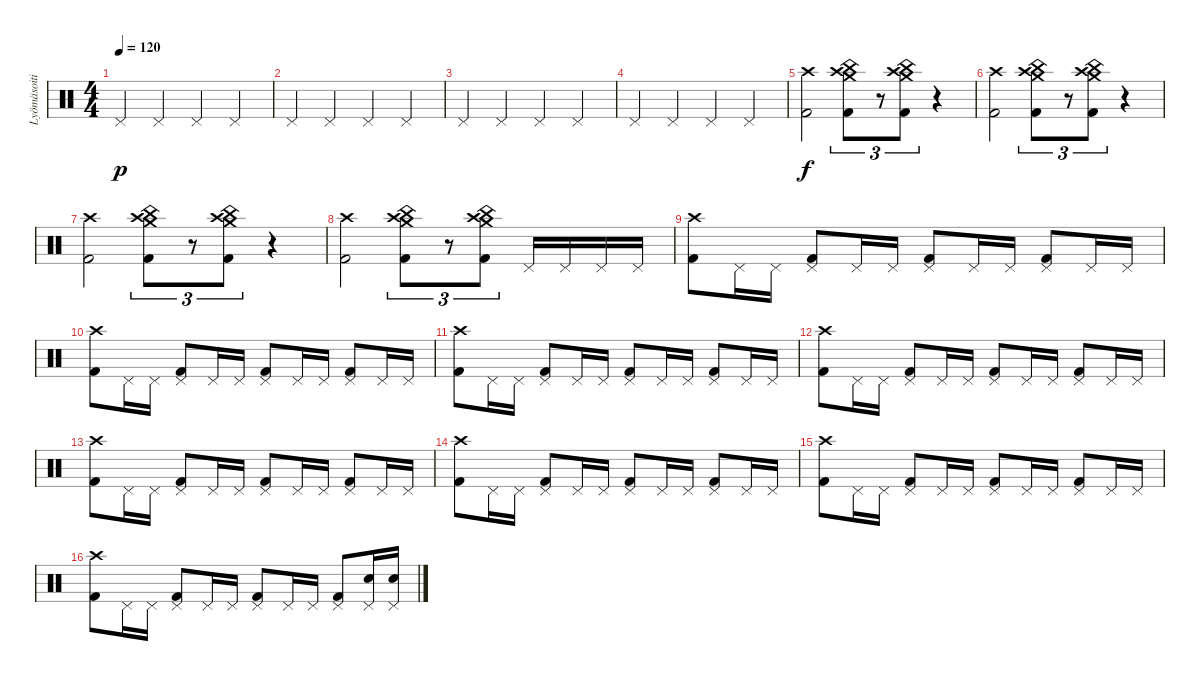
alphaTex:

\track ("Lyömäsoitin" "Lyömäsoiti") {instrument percussion}
\staff {score}
\articulation defaults
\ts (4 4)
\tempo 120
\clef neutral
\ks c "Pedal Hi-Hat (hit)".4{dy p} "Pedal Hi-Hat (hit)".4 "Pedal Hi-Hat (hit)".4 "Pedal Hi-Hat (hit)".4
|
"Pedal Hi-Hat (hit)".4 "Pedal Hi-Hat (hit)".4 "Pedal Hi-Hat (hit)".4 "Pedal Hi-Hat (hit)".4 |
"Pedal Hi-Hat (hit)".4 "Pedal Hi-Hat (hit)".4 "Pedal Hi-Hat (hit)".4 "Pedal Hi-Hat (hit)".4 |
"Pedal Hi-Hat (hit)".4 "Pedal Hi-Hat (hit)".4 "Pedal Hi-Hat (hit)".4 "Pedal Hi-Hat (hit)".4 |
("Crash high (hit)" "Kick (hit) 2").2{dy f} ("Crash medium (hit)" "China (hit)" "Crash high (hit)" "Kick (hit) 2").8{tu (3 2)} r.8{tu (3 2)} ("Crash medium (hit)" "China (hit)" "Crash high (hit)" "Kick (hit) 2").8{tu (3 2)} r.4 |
("Crash high (hit)" "Kick (hit) 2").2 ("Crash medium (hit)" "China (hit)" "Crash high (hit)" "Kick (hit) 2").8{tu (3 2)} r.8{tu (3 2)} ("Crash medium (hit)" "China (hit)" "Crash high (hit)" "Kick (hit) 2").8{tu (3 2)} r.4 |
("Crash high (hit)" "Kick (hit) 2").2 ("Crash medium (hit)" "China (hit)" "Crash high (hit)" "Kick (hit) 2").8{tu (3 2)} r.8{tu (3 2)} ("Crash medium (hit)" "China (hit)" "Crash high (hit)" "Kick (hit) 2").8{tu (3 2)} r.4 |
("Crash high (hit)" "Kick (hit) 2").2 ("Crash medium (hit)" "China (hit)" "Crash high (hit)" "Kick (hit) 2").8{tu (3 2)} r.8{tu (3 2)} ("Crash medium (hit)" "China (hit)" "Crash high (hit)" "Kick (hit) 2").8{tu (3 2)} "Pedal Hi-Hat (hit)".16 "Pedal Hi-Hat (hit)".16 "Pedal Hi-Hat (hit)".16 "Pedal Hi-Hat (hit)".16 |
("Crash high (hit)" "Kick (hit) 2").8 "Pedal Hi-Hat (hit)".16 "Pedal Hi-Hat (hit)".16 ("Pedal Hi-Hat (hit)" "Kick (hit) 2").8 "Pedal Hi-Hat (hit)".16 "Pedal Hi-Hat (hit)".16 ("Pedal Hi-Hat (hit)" "Kick (hit) 2").8 "Pedal Hi-Hat (hit)".16 "Pedal Hi-Hat (hit)".16 ("Pedal Hi-Hat (hit)" "Kick (hit) 2").8 "Pedal Hi-Hat (hit)".16 "Pedal Hi-Hat (hit)".16 |
("Crash high (hit)" "Kick (hit) 2").8 "Pedal Hi-Hat (hit)".16 "Pedal Hi-Hat (hit)".16 ("Pedal Hi-Hat (hit)" "Kick (hit) 2").8 "Pedal Hi-Hat (hit)".16 "Pedal Hi-Hat (hit)".16 ("Pedal Hi-Hat (hit)" "Kick (hit) 2").8 "Pedal Hi-Hat (hit)".16 "Pedal Hi-Hat (hit)".16 ("Pedal Hi-Hat (hit)" "Kick (hit) 2").8 "Pedal Hi-Hat (hit)".16 "Pedal Hi-Hat (hit)".16 |
("Crash high (hit)" "Kick (hit) 2").8 "Pedal Hi-Hat (hit)".16 "Pedal Hi-Hat (hit)".16 ("Pedal Hi-Hat (hit)" "Kick (hit) 2").8 "Pedal Hi-Hat (hit)".16 "Pedal Hi-Hat (hit)".16 ("Pedal Hi-Hat (hit)" "Kick (hit) 2").8 "Pedal Hi-Hat (hit)".16 "Pedal Hi-Hat (hit)".16 ("Pedal Hi-Hat (hit)" "Kick (hit) 2").8 "Pedal Hi-Hat (hit)".16 "Pedal Hi-Hat (hit)".16 |
("Crash high (hit)" "Kick (hit) 2").8 "Pedal Hi-Hat (hit)".16 "Pedal Hi-Hat (hit)".16 ("Pedal Hi-Hat (hit)" "Kick (hit) 2").8 "Pedal Hi-Hat (hit)".16 "Pedal Hi-Hat (hit)".16 ("Pedal Hi-Hat (hit)" "Kick (hit) 2").8 "Pedal Hi-Hat (hit)".16 "Pedal Hi-Hat (hit)".16 ("Pedal Hi-Hat (hit)" "Kick (hit) 2").8 "Pedal Hi-Hat (hit)".16 "Pedal Hi-Hat (hit)".16 |
("Crash high (hit)" "Kick (hit) 2").8 "Pedal Hi-Hat (hit)".16 "Pedal Hi-Hat (hit)".16 ("Pedal Hi-Hat (hit)" "Kick (hit) 2").8 "Pedal Hi-Hat (hit)".16 "Pedal Hi-Hat (hit)".16 ("Pedal Hi-Hat (hit)" "Kick (hit) 2").8 "Pedal Hi-Hat (hit)".16 "Pedal Hi-Hat (hit)".16 ("Pedal Hi-Hat (hit)" "Kick (hit) 2").8 "Pedal Hi-Hat (hit)".16 "Pedal Hi-Hat (hit)".16 |
("Crash high (hit)" "Kick (hit) 2").8 "Pedal Hi-Hat (hit)".16 "Pedal Hi-Hat (hit)".16 ("Pedal Hi-Hat (hit)" "Kick (hit) 2").8 "Pedal Hi-Hat (hit)".16 "Pedal Hi-Hat (hit)".16 ("Pedal Hi-Hat (hit)" "Kick (hit) 2").8 "Pedal Hi-Hat (hit)".16 "Pedal Hi-Hat (hit)".16 ("Pedal Hi-Hat (hit)" "Kick (hit) 2").8 "Pedal Hi-Hat (hit)".16 "Pedal Hi-Hat (hit)".16 |
("Crash high (hit)" "Kick (hit) 2").8 "Pedal Hi-Hat (hit)".16 "Pedal Hi-Hat (hit)".16 ("Pedal Hi-Hat (hit)" "Kick (hit) 2").8 "Pedal Hi-Hat (hit)".16 "Pedal Hi-Hat (hit)".16 ("Pedal Hi-Hat (hit)" "Kick (hit) 2").8 "Pedal Hi-Hat (hit)".16 "Pedal Hi-Hat (hit)".16 ("Pedal Hi-Hat (hit)" "Kick (hit) 2").8 "Pedal Hi-Hat (hit)".16 "Pedal Hi-Hat (hit)".16 |
("Crash high (hit)" "Kick (hit) 2").8 "Pedal Hi-Hat (hit)".16 "Pedal Hi-Hat (hit)".16 ("Pedal Hi-Hat (hit)" "Kick (hit) 2").8 "Pedal Hi-Hat (hit)".16 "Pedal Hi-Hat (hit)".16 ("Pedal Hi-Hat (hit)" "Kick (hit) 2").8 "Pedal Hi-Hat (hit)".16 "Pedal Hi-Hat (hit)".16 ("Pedal Hi-Hat (hit)" "Kick (hit) 2").8 ("Pedal Hi-Hat (hit)" "Snare (hit) 2").16 ("Pedal Hi-Hat (hit)" "Snare (hit) 2").16
